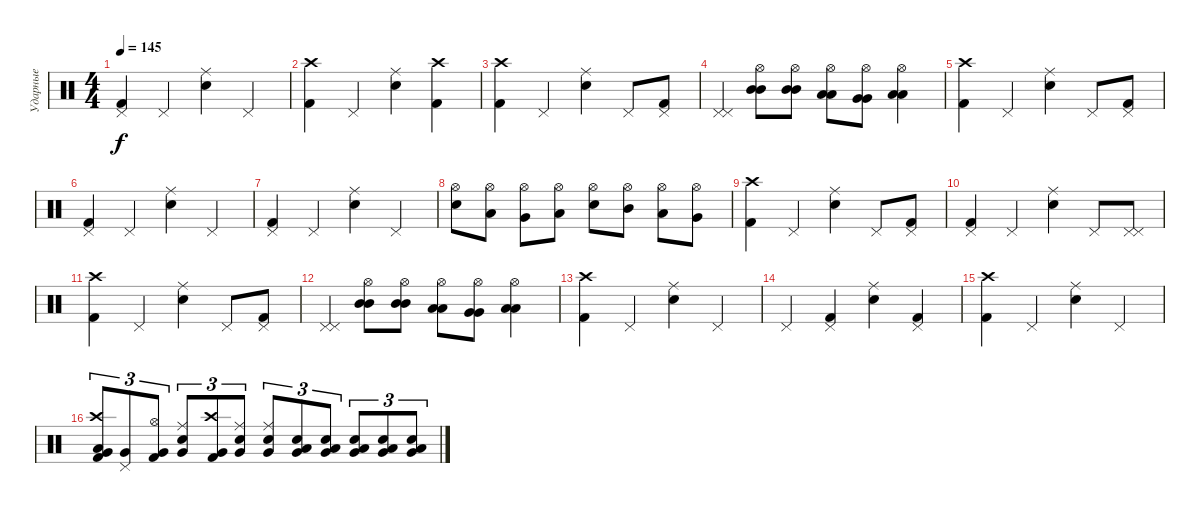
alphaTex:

\track ("Ударные" "Ударные") {instrument percussion}
\staff {score}
\articulation defaults
\ts (4 4)
\tempo 145
\clef neutral
\ks c
("Kick (hit) 2" "Pedal Hi-Hat (hit)").4{dy f} "Pedal Hi-Hat (hit)".4 ("Electric Snare (hit)" "Ride (middle)").4 "Pedal Hi-Hat (hit)".4 |
("Kick (hit) 2" "Crash high (hit)").4 "Pedal Hi-Hat (hit)".4 ("Electric Snare (hit)" "Ride (middle)").4 ("Kick (hit) 2" "Crash high (hit)").4 |
("Kick (hit) 2" "Crash high (hit)").4 "Pedal Hi-Hat (hit)".4 ("Electric Snare (hit)" "Ride (middle)").4 "Pedal Hi-Hat (hit)".8 ("Kick (hit) 2" "Pedal Hi-Hat (hit)").8 |
("Pedal Hi-Hat (hit)" "Pedal Hi-Hat (hit)").4 ("Hi-Hat (open)" "Mid Tom (hit)" "Mid Tom (hit)").8 ("Hi-Hat (open)" "Mid Tom (hit)" "Mid Tom (hit)").8 ("Hi-Hat (open)" "Low Tom (hit)" "Low Tom (hit)").8 ("Hi-Hat (open)" "Very Low Tom (hit)" "Very Low Tom (hit)").8 ("Hi-Hat (open)" "Low Floor Tom (hit)" "Low Floor Tom (hit)").4 |
("Kick (hit) 2" "Crash high (hit)").4 "Pedal Hi-Hat (hit)".4 ("Electric Snare (hit)" "Ride (middle)").4 "Pedal Hi-Hat (hit)".8 ("Kick (hit) 2" "Pedal Hi-Hat (hit)").8 |
("Kick (hit) 2" "Pedal Hi-Hat (hit)").4 "Pedal Hi-Hat (hit)".4 ("Electric Snare (hit)" "Ride (middle)").4 "Pedal Hi-Hat (hit)".4 |
("Kick (hit) 2" "Pedal Hi-Hat (hit)").4 "Pedal Hi-Hat (hit)".4 ("Electric Snare (hit)" "Ride (middle)").4 "Pedal Hi-Hat (hit)".4 |
("Electric Snare (hit)" "Hi-Hat (open)").8 ("Low Tom (hit)" "Hi-Hat (open)").8 ("Very Low Tom (hit)" "Hi-Hat (open)").8 ("Low Floor Tom (hit)" "Hi-Hat (open)").8 ("Electric Snare (hit)" "Hi-Hat (open)").8 ("Mid Tom (hit)" "Hi-Hat (open)").8 ("Low Tom (hit)" "Hi-Hat (open)").8 ("Very Low Tom (hit)" "Hi-Hat (open)").8 |
("Kick (hit) 2" "Crash high (hit)").4 "Pedal Hi-Hat (hit)".4 ("Electric Snare (hit)" "Ride (middle)").4 "Pedal Hi-Hat (hit)".8 ("Kick (hit) 2" "Pedal Hi-Hat (hit)").8 |
("Kick (hit) 2" "Pedal Hi-Hat (hit)").4 "Pedal Hi-Hat (hit)".4 ("Electric Snare (hit)" "Ride (middle)").4 "Pedal Hi-Hat (hit)".8 ("Pedal Hi-Hat (hit)" "Pedal Hi-Hat (hit)").8 |
("Kick (hit) 2" "Crash high (hit)").4 "Pedal Hi-Hat (hit)".4 ("Electric Snare (hit)" "Ride (middle)").4 "Pedal Hi-Hat (hit)".8 ("Kick (hit) 2" "Pedal Hi-Hat (hit)").8 |
("Pedal Hi-Hat (hit)" "Pedal Hi-Hat (hit)").4 ("Hi-Hat (open)" "Mid Tom (hit)" "Mid Tom (hit)").8 ("Hi-Hat (open)" "Mid Tom (hit)" "Mid Tom (hit)").8 ("Hi-Hat (open)" "Low Tom (hit)" "Low Tom (hit)").8 ("Hi-Hat (open)" "Very Low Tom (hit)" "Very Low Tom (hit)").8 ("Hi-Hat (open)" "Low Floor Tom (hit)" "Low Floor Tom (hit)").4 |
("Kick (hit) 2" "Crash high (hit)").4 "Pedal Hi-Hat (hit)".4 ("Electric Snare (hit)" "Ride (middle)").4 "Pedal Hi-Hat (hit)".4 |
"Pedal Hi-Hat (hit)".4 ("Kick (hit) 2" "Pedal Hi-Hat (hit)").4 ("Electric Snare (hit)" "Ride (middle)").4 ("Kick (hit) 2" "Pedal Hi-Hat (hit)").4 |
("Kick (hit) 2" "Crash high (hit)").4 "Pedal Hi-Hat (hit)".4 ("Electric Snare (hit)" "Ride (middle)").4 "Pedal Hi-Hat (hit)".4 |
("Low Tom (hit)" "Very Low Tom (hit)" "Kick (hit) 2" "Crash high (hit)").8{tu (3 2)} ("Very Low Tom (hit)" "Pedal Hi-Hat (hit)").8{tu (3 2)} ("Very Low Tom (hit)" "Kick (hit) 2" "Hi-Hat (open)").8{tu (3 2)} ("Very Low Tom (hit)" "Electric Snare (hit)" "Ride (middle)").8{tu (3 2)} ("Very Low Tom (hit)" "Kick (hit) 2" "Crash high (hit)").8{tu (3 2)} ("Very Low Tom (hit)" "Electric Snare (hit)" "Ride (middle)").8{tu (3 2)} ("Very Low Tom (hit)" "Electric Snare (hit)" "Ride (middle)").8{tu (3 2)} ("Very Low Tom (hit)" "Low Tom (hit)" "Electric Snare (hit)").8{tu (3 2)} ("Very Low Tom (hit)" "Low Tom (hit)" "Electric Snare (hit)").8{tu (3 2)} ("Very Low Tom (hit)" "Low Tom (hit)" "Electric Snare (hit)").8{tu (3 2)} ("Very Low Tom (hit)" "Low Tom (hit)" "Electric Snare (hit)").8{tu (3 2)} ("Very Low Tom (hit)" "Low Tom (hit)" "Electric Snare (hit)").8{tu (3 2)}
